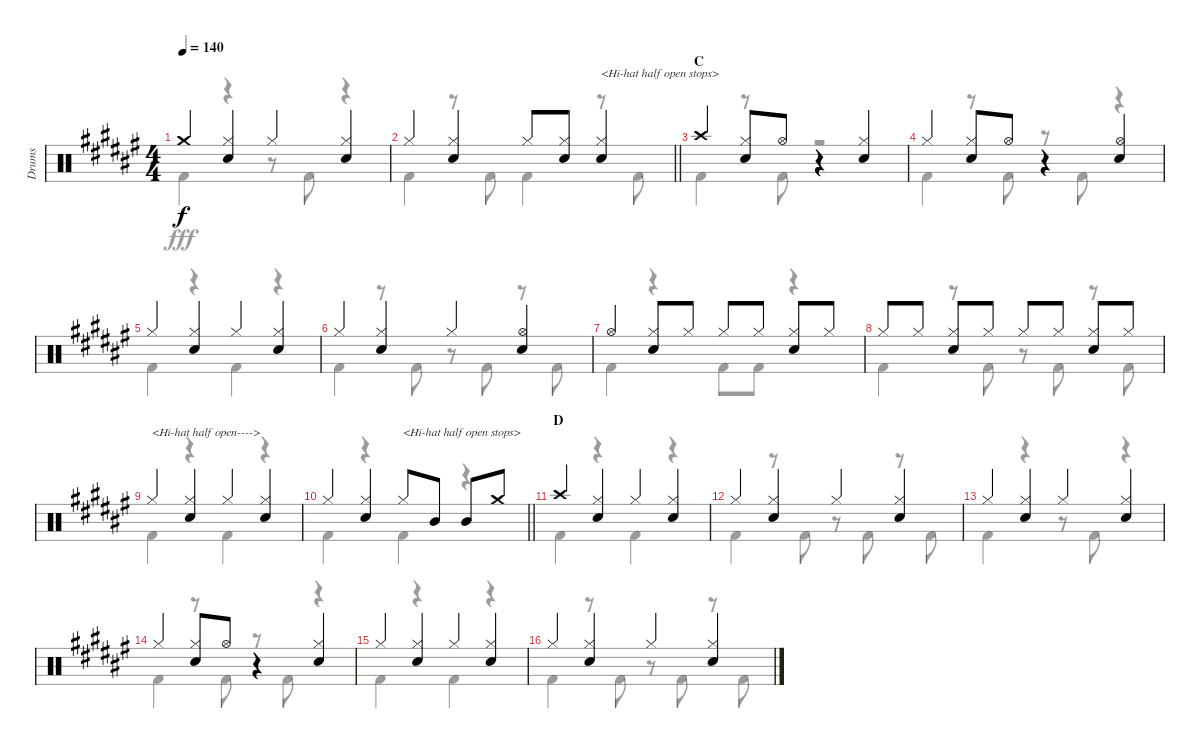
\track ("Drums" "Drums") {instrument percussion}
\staff {score}
\articulation defaults
\voice
\ts (4 4)
\tempo 140
\clef neutral
\ks f# "Crash medium (hit)".4{dy f}
("Hi-Hat (closed)" "Snare (hit) 2").4 "Hi-Hat (closed)".4 ("Hi-Hat (closed)" "Snare (hit) 2").4 |
\barLineRight lightlight "Hi-Hat (closed)".4
("Hi-Hat (closed)" "Snare (hit) 2").4 "Hi-Hat (closed)".8 ("Hi-Hat (closed)" "Snare (hit) 2").8 ("Hi-Hat (closed)" "Snare (hit) 2").4{txt "<Hi-hat half open stops>"} |
\section ("" "C")
"Crash high (hit)".4 ("Hi-Hat (closed)" "Snare (hit) 2").8 "Hi-Hat (open)".8 r.4 ("Hi-Hat (closed)" "Snare (hit) 2").4 |
"Hi-Hat (closed)".4 ("Hi-Hat (closed)" "Snare (hit) 2").8 "Hi-Hat (open)".8 r.4 ("Hi-Hat (open)" "Snare (hit) 2").4 |
"Hi-Hat (closed)".4 ("Hi-Hat (closed)" "Snare (hit) 2").4 "Hi-Hat (closed)".4 ("Hi-Hat (closed)" "Snare (hit) 2").4 |
"Hi-Hat (closed)".4 ("Hi-Hat (closed)" "Snare (hit) 2").4 "Hi-Hat (closed)".4 ("Hi-Hat (open)" "Snare (hit) 2").4 |
"Hi-Hat (open)".4 ("Hi-Hat (closed)" "Snare (hit) 2").8 "Hi-Hat (closed)".8 "Hi-Hat (closed)".8 "Hi-Hat (closed)".8 ("Hi-Hat (closed)" "Snare (hit) 2").8 "Hi-Hat (closed)".8 |
"Hi-Hat (closed)".8 "Hi-Hat (closed)".8 ("Hi-Hat (closed)" "Snare (hit) 2").8 "Hi-Hat (closed)".8 "Hi-Hat (closed)".8 "Hi-Hat (closed)".8 ("Hi-Hat (closed)" "Snare (hit) 2").8 "Hi-Hat (closed)".8 |
"Hi-Hat (closed)".4{txt "<Hi-hat half open---->"} ("Hi-Hat (closed)" "Snare (hit) 2").4 "Hi-Hat (closed)".4 ("Hi-Hat (closed)" "Snare (hit) 2").4 |
\barLineRight lightlight "Hi-Hat (closed)".4
("Hi-Hat (closed)" "Snare (hit) 2").4 "Hi-Hat (closed)".8{txt "<Hi-hat half open stops>"} "Mid Tom (hit)".8 "Mid Tom (hit)".8 "Crash medium (hit)".8 |
\section ("" "D")
"Crash high (hit)".4 ("Hi-Hat (closed)" "Snare (hit) 2").4 "Hi-Hat (closed)".4 ("Hi-Hat (closed)" "Snare (hit) 2").4 |
"Hi-Hat (closed)".4 ("Hi-Hat (closed)" "Snare (hit) 2").4 "Hi-Hat (closed)".4 ("Hi-Hat (closed)" "Snare (hit) 2").4 |
"Hi-Hat (closed)".4 ("Hi-Hat (closed)" "Snare (hit) 2").4 "Hi-Hat (closed)".4 ("Hi-Hat (closed)" "Snare (hit) 2").4 |
"Hi-Hat (closed)".4 ("Hi-Hat (closed)" "Snare (hit) 2").8 "Hi-Hat (open)".8 r.4 ("Hi-Hat (closed)" "Snare (hit) 2").4 |
"Hi-Hat (closed)".4 ("Hi-Hat (closed)" "Snare (hit) 2").4 "Hi-Hat (closed)".4 ("Hi-Hat (closed)" "Snare (hit) 2").4 |
"Hi-Hat (closed)".4 ("Hi-Hat (closed)" "Snare (hit) 2").4 "Hi-Hat (closed)".4 ("Hi-Hat (closed)" "Snare (hit) 2").4
\voice
\clef neutral
\ottava regular
\simile none
\ks f# "Kick (hit) 2".4{dy fff}
r.4 r.8 "Kick (hit) 2".8 r.4 |
\barLineRight lightlight "Kick (hit) 2".4
r.8 "Kick (hit) 2".8 "Kick (hit) 2".4 r.8 "Kick (hit) 2".8 |
"Kick (hit) 2".4 r.8 "Kick (hit) 2".8 r.2 |
"Kick (hit) 2".4 r.8 "Kick (hit) 2".8 r.8 "Kick (hit) 2".8 r.4 |
"Kick (hit) 2".4 r.4 "Kick (hit) 2".4 r.4 |
"Kick (hit) 2".4 r.8 "Kick (hit) 2".8 r.8 "Kick (hit) 2".8 r.8 "Kick (hit) 2".8 |
"Kick (hit) 2".4 r.4 "Kick (hit) 2".8 "Kick (hit) 2".8 r.4 |
"Kick (hit) 2".4 r.8 "Kick (hit) 2".8 r.8 "Kick (hit) 2".8 r.8 "Kick (hit) 2".8 |
"Kick (hit) 2".4 r.4 "Kick (hit) 2".4 r.4 |
\barLineRight lightlight "Kick (hit) 2".4
r.4 "Kick (hit) 2".4 r.4 |
"Kick (hit) 2".4 r.4 "Kick (hit) 2".4 r.4 |
"Kick (hit) 2".4 r.8 "Kick (hit) 2".8 r.8 "Kick (hit) 2".8 r.8 "Kick (hit) 2".8 |
"Kick (hit) 2".4 r.4 r.8 "Kick (hit) 2".8 r.4 |
"Kick (hit) 2".4 r.8 "Kick (hit) 2".8 r.8 "Kick (hit) 2".8 r.4 |
"Kick (hit) 2".4 r.4 "Kick (hit) 2".4 r.4 |
"Kick (hit) 2".4 r.8 "Kick (hit) 2".8 r.8 "Kick (hit) 2".8 r.8 "Kick (hit) 2".8
